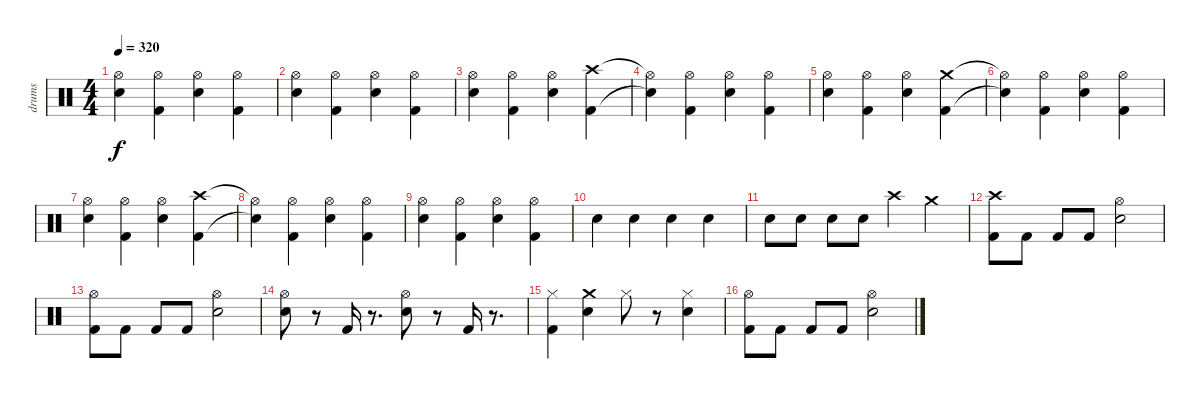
\track ("drums" "drums") {instrument percussion}
\staff {score}
\articulation defaults
\ts (4 4)
\tempo 320
\clef neutral
\ks c
("Hi-Hat (open)" "Snare (hit) 2").4{dy f} ("Hi-Hat (open)" "Kick (hit) 2").4 ("Hi-Hat (open)" "Snare (hit) 2").4 ("Hi-Hat (open)" "Kick (hit) 2").4 |
("Hi-Hat (open)" "Snare (hit) 2").4 ("Hi-Hat (open)" "Kick (hit) 2").4 ("Hi-Hat (open)" "Snare (hit) 2").4 ("Hi-Hat (open)" "Kick (hit) 2").4 |
("Hi-Hat (open)" "Snare (hit) 2").4 ("Hi-Hat (open)" "Kick (hit) 2").4 ("Hi-Hat (open)" "Snare (hit) 2").4 ("Crash high (hit)" "Kick (hit) 2").4 |
("Hi-Hat (open)"{t} "Snare (hit)"{t}).4 ("Hi-Hat (open)" "Kick (hit) 2").4 ("Hi-Hat (open)" "Snare (hit) 2").4 ("Hi-Hat (open)" "Kick (hit) 2").4 |
("Hi-Hat (open)" "Snare (hit) 2").4 ("Hi-Hat (open)" "Kick (hit) 2").4 ("Hi-Hat (open)" "Snare (hit) 2").4 ("Crash medium (hit)" "Kick (hit) 2").4 |
("Hi-Hat (open)"{t} "Snare (hit)"{t}).4 ("Hi-Hat (open)" "Kick (hit) 2").4 ("Hi-Hat (open)" "Snare (hit) 2").4 ("Hi-Hat (open)" "Kick (hit) 2").4 |
("Hi-Hat (open)" "Snare (hit) 2").4 ("Hi-Hat (open)" "Kick (hit) 2").4 ("Hi-Hat (open)" "Snare (hit) 2").4 ("Crash high (hit)" "Kick (hit) 2").4 |
("Hi-Hat (open)"{t} "Snare (hit)"{t}).4 ("Hi-Hat (open)" "Kick (hit) 2").4 ("Hi-Hat (open)" "Snare (hit) 2").4 ("Hi-Hat (open)" "Kick (hit) 2").4 |
("Hi-Hat (open)" "Snare (hit) 2").4 ("Hi-Hat (open)" "Kick (hit) 2").4 ("Hi-Hat (open)" "Snare (hit) 2").4 ("Hi-Hat (open)" "Kick (hit) 2").4 |
"Snare (hit) 2".4 "Snare (hit) 2".4 "Snare (hit) 2".4 "Snare (hit) 2".4 |
"Snare (hit) 2".8 "Snare (hit) 2".8 "Snare (hit) 2".8 "Snare (hit) 2".8 "Crash high (hit)".4 "Crash medium (hit)".4 |
("Crash high (hit)" "Kick (hit) 2").8 "Kick (hit) 2".8 "Kick (hit) 2".8 "Kick (hit) 2".8 ("Hi-Hat (open)" "Snare (hit) 2").2 |
("Hi-Hat (open)" "Kick (hit) 2").8 "Kick (hit) 2".8 "Kick (hit) 2".8 "Kick (hit) 2".8 ("Hi-Hat (open)" "Snare (hit) 2").2 |
("Hi-Hat (open)" "Snare (hit) 2").8 r.8 "Kick (hit) 2".16 r.8{d} ("Hi-Hat (open)" "Snare (hit) 2").8 r.8 "Kick (hit) 2".16 r.8{d} |
("Hi-Hat (closed)" "Kick (hit) 2").4 ("Snare (hit) 2" "Crash medium (hit)").4 "Hi-Hat (closed)".8 r.8 ("Hi-Hat (closed)" "Snare (hit) 2").4 |
("Hi-Hat (open)" "Kick (hit) 2").8 "Kick (hit) 2".8 "Kick (hit) 2".8 "Kick (hit) 2".8 ("Hi-Hat (open)" "Snare (hit) 2").2
